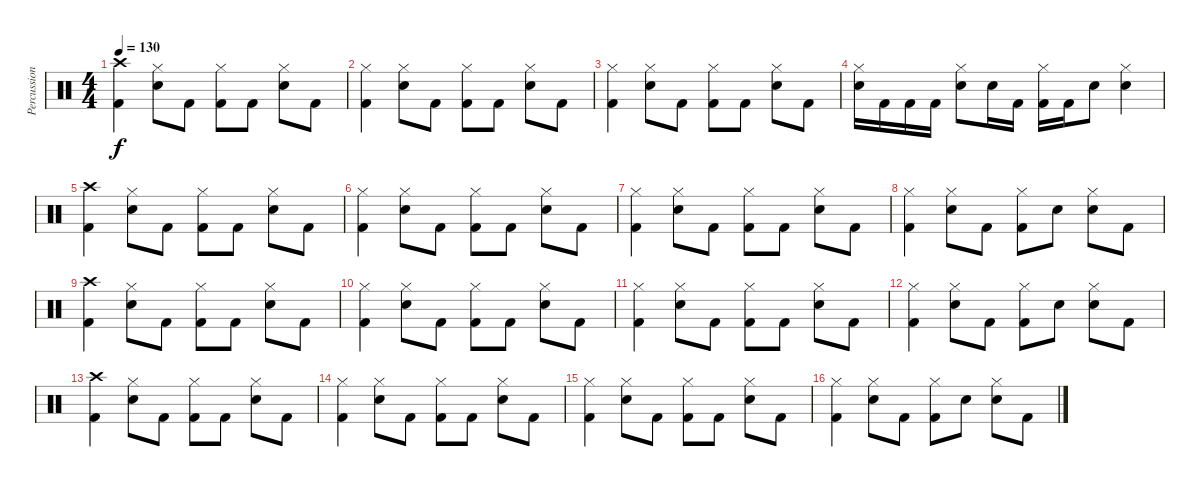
\track ("Percussion" "Percussion") {instrument percussion}
\staff {score}
\articulation defaults
\ts (4 4)
\tempo 130
\clef neutral
\ks c
("Crash high (hit)" "Kick (hit) 2").4{dy f} ("Hi-Hat (closed)" "Electric Snare (hit)").8 "Kick (hit) 2".8 ("Hi-Hat (closed)" "Kick (hit) 2").8 "Kick (hit) 2".8 ("Hi-Hat (closed)" "Electric Snare (hit)").8 "Kick (hit) 2".8 |
("Hi-Hat (closed)" "Kick (hit) 2").4 ("Hi-Hat (closed)" "Electric Snare (hit)").8 "Kick (hit) 2".8 ("Hi-Hat (closed)" "Kick (hit) 2").8 "Kick (hit) 2".8 ("Hi-Hat (closed)" "Electric Snare (hit)").8 "Kick (hit) 2".8 |
("Hi-Hat (closed)" "Kick (hit) 2").4 ("Hi-Hat (closed)" "Electric Snare (hit)").8 "Kick (hit) 2".8 ("Hi-Hat (closed)" "Kick (hit) 2").8 "Kick (hit) 2".8 ("Hi-Hat (closed)" "Electric Snare (hit)").8 "Kick (hit) 2".8 |
("Hi-Hat (closed)" "Electric Snare (hit)").16 "Kick (hit) 2".16 "Kick (hit) 2".16 "Kick (hit) 2".16 ("Hi-Hat (closed)" "Electric Snare (hit)").8 "Electric Snare (hit)".16 "Kick (hit) 2".16 ("Hi-Hat (closed)" "Kick (hit) 2").16 "Kick (hit) 2".16 "Electric Snare (hit)".8 ("Hi-Hat (closed)" "Electric Snare (hit)").4 |
("Crash high (hit)" "Kick (hit) 2").4 ("Hi-Hat (closed)" "Electric Snare (hit)").8 "Kick (hit) 2".8 ("Hi-Hat (closed)" "Kick (hit) 2").8 "Kick (hit) 2".8 ("Hi-Hat (closed)" "Electric Snare (hit)").8 "Kick (hit) 2".8 |
("Hi-Hat (closed)" "Kick (hit) 2").4 ("Hi-Hat (closed)" "Electric Snare (hit)").8 "Kick (hit) 2".8 ("Hi-Hat (closed)" "Kick (hit) 2").8 "Kick (hit) 2".8 ("Hi-Hat (closed)" "Electric Snare (hit)").8 "Kick (hit) 2".8 |
("Hi-Hat (closed)" "Kick (hit) 2").4 ("Hi-Hat (closed)" "Electric Snare (hit)").8 "Kick (hit) 2".8 ("Hi-Hat (closed)" "Kick (hit) 2").8 "Kick (hit) 2".8 ("Hi-Hat (closed)" "Electric Snare (hit)").8 "Kick (hit) 2".8 |
("Hi-Hat (closed)" "Kick (hit) 2").4 ("Hi-Hat (closed)" "Electric Snare (hit)").8 "Kick (hit) 2".8 ("Hi-Hat (closed)" "Kick (hit) 2").8 "Electric Snare (hit)".8 ("Hi-Hat (closed)" "Electric Snare (hit)").8 "Kick (hit) 2".8 |
("Crash high (hit)" "Kick (hit) 2").4 ("Hi-Hat (closed)" "Electric Snare (hit)").8 "Kick (hit) 2".8 ("Hi-Hat (closed)" "Kick (hit) 2").8 "Kick (hit) 2".8 ("Hi-Hat (closed)" "Electric Snare (hit)").8 "Kick (hit) 2".8 |
("Hi-Hat (closed)" "Kick (hit) 2").4 ("Hi-Hat (closed)" "Electric Snare (hit)").8 "Kick (hit) 2".8 ("Hi-Hat (closed)" "Kick (hit) 2").8 "Kick (hit) 2".8 ("Hi-Hat (closed)" "Electric Snare (hit)").8 "Kick (hit) 2".8 |
("Hi-Hat (closed)" "Kick (hit) 2").4 ("Hi-Hat (closed)" "Electric Snare (hit)").8 "Kick (hit) 2".8 ("Hi-Hat (closed)" "Kick (hit) 2").8 "Kick (hit) 2".8 ("Hi-Hat (closed)" "Electric Snare (hit)").8 "Kick (hit) 2".8 |
("Hi-Hat (closed)" "Kick (hit) 2").4 ("Hi-Hat (closed)" "Electric Snare (hit)").8 "Kick (hit) 2".8 ("Hi-Hat (closed)" "Kick (hit) 2").8 "Electric Snare (hit)".8 ("Hi-Hat (closed)" "Electric Snare (hit)").8 "Kick (hit) 2".8 |
("Crash high (hit)" "Kick (hit) 2").4 ("Hi-Hat (closed)" "Electric Snare (hit)").8 "Kick (hit) 2".8 ("Hi-Hat (closed)" "Kick (hit) 2").8 "Kick (hit) 2".8 ("Hi-Hat (closed)" "Electric Snare (hit)").8 "Kick (hit) 2".8 |
("Hi-Hat (closed)" "Kick (hit) 2").4 ("Hi-Hat (closed)" "Electric Snare (hit)").8 "Kick (hit) 2".8 ("Hi-Hat (closed)" "Kick (hit) 2").8 "Kick (hit) 2".8 ("Hi-Hat (closed)" "Electric Snare (hit)").8 "Kick (hit) 2".8 |
("Hi-Hat (closed)" "Kick (hit) 2").4 ("Hi-Hat (closed)" "Electric Snare (hit)").8 "Kick (hit) 2".8 ("Hi-Hat (closed)" "Kick (hit) 2").8 "Kick (hit) 2".8 ("Hi-Hat (closed)" "Electric Snare (hit)").8 "Kick (hit) 2".8 |
("Hi-Hat (closed)" "Kick (hit) 2").4 ("Hi-Hat (closed)" "Electric Snare (hit)").8 "Kick (hit) 2".8 ("Hi-Hat (closed)" "Kick (hit) 2").8 "Electric Snare (hit)".8 ("Hi-Hat (closed)" "Electric Snare (hit)").8 "Kick (hit) 2".8
